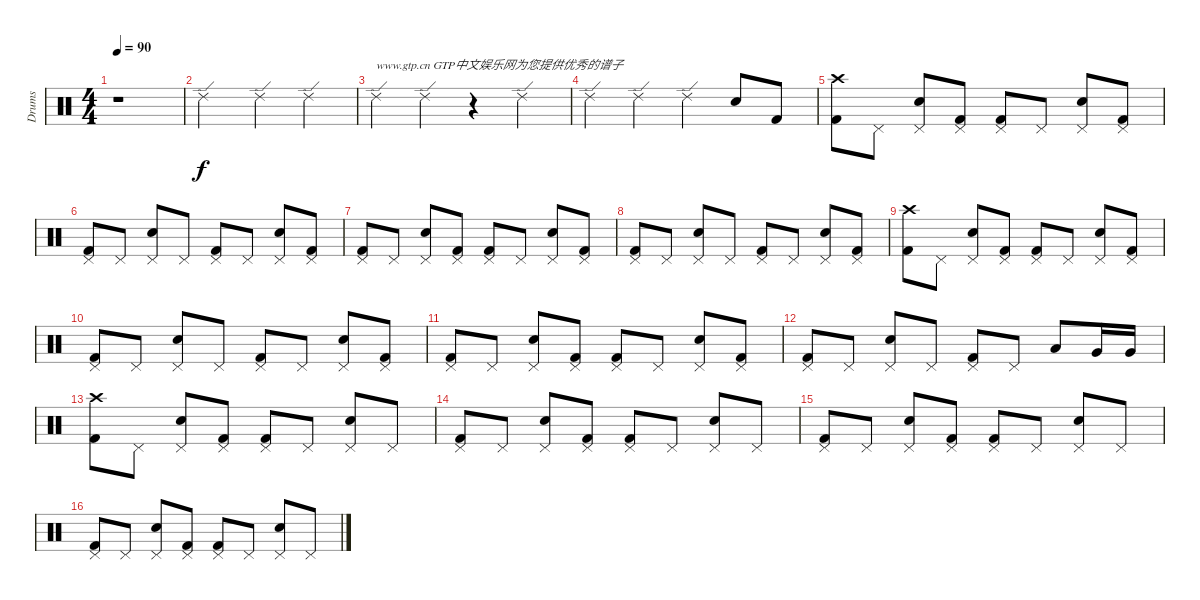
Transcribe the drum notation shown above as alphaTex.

\track ("Drums" "Drums") {instrument percussion}
\staff {score}
\articulation defaults
\ts (4 4)
\tempo 90
\clef neutral
\ks c
r.1{dy f} |
"Ride (edge) 2".2 "Ride (edge) 2".4 "Ride (edge) 2".4 |
"Ride (edge) 2".4{txt "www.gtp.cn GTP中文娱乐网为您提供优秀的谱子"} "Ride (edge) 2".4 r.4 "Ride (edge) 2".4 |
"Ride (edge) 2".4 "Ride (edge) 2".4 "Ride (edge) 2".4 "Electric Snare (hit)".8 "Kick (hit) 2".8 |
("Crash high (hit)" "Kick (hit) 2").8 "Pedal Hi-Hat (hit)".8 ("Pedal Hi-Hat (hit)" "Electric Snare (hit)").8 ("Pedal Hi-Hat (hit)" "Kick (hit) 2").8 ("Pedal Hi-Hat (hit)" "Kick (hit) 2").8 "Pedal Hi-Hat (hit)".8 ("Pedal Hi-Hat (hit)" "Electric Snare (hit)").8 ("Pedal Hi-Hat (hit)" "Kick (hit) 2").8 |
("Pedal Hi-Hat (hit)" "Kick (hit) 2").8 "Pedal Hi-Hat (hit)".8 ("Pedal Hi-Hat (hit)" "Electric Snare (hit)").8 "Pedal Hi-Hat (hit)".8 ("Pedal Hi-Hat (hit)" "Kick (hit) 2").8 "Pedal Hi-Hat (hit)".8 ("Pedal Hi-Hat (hit)" "Electric Snare (hit)").8 ("Pedal Hi-Hat (hit)" "Kick (hit) 2").8 |
("Pedal Hi-Hat (hit)" "Kick (hit) 2").8 "Pedal Hi-Hat (hit)".8 ("Pedal Hi-Hat (hit)" "Electric Snare (hit)").8 ("Pedal Hi-Hat (hit)" "Kick (hit) 2").8 ("Pedal Hi-Hat (hit)" "Kick (hit) 2").8 "Pedal Hi-Hat (hit)".8 ("Pedal Hi-Hat (hit)" "Electric Snare (hit)").8 ("Pedal Hi-Hat (hit)" "Kick (hit) 2").8 |
("Pedal Hi-Hat (hit)" "Kick (hit) 2").8 "Pedal Hi-Hat (hit)".8 ("Pedal Hi-Hat (hit)" "Electric Snare (hit)").8 "Pedal Hi-Hat (hit)".8 ("Pedal Hi-Hat (hit)" "Kick (hit) 2").8 "Pedal Hi-Hat (hit)".8 ("Pedal Hi-Hat (hit)" "Electric Snare (hit)").8 ("Pedal Hi-Hat (hit)" "Kick (hit) 2").8 |
("Crash high (hit)" "Kick (hit) 2").8 "Pedal Hi-Hat (hit)".8 ("Pedal Hi-Hat (hit)" "Electric Snare (hit)").8 ("Pedal Hi-Hat (hit)" "Kick (hit) 2").8 ("Pedal Hi-Hat (hit)" "Kick (hit) 2").8 "Pedal Hi-Hat (hit)".8 ("Pedal Hi-Hat (hit)" "Electric Snare (hit)").8 ("Pedal Hi-Hat (hit)" "Kick (hit) 2").8 |
("Pedal Hi-Hat (hit)" "Kick (hit) 2").8 "Pedal Hi-Hat (hit)".8 ("Pedal Hi-Hat (hit)" "Electric Snare (hit)").8 "Pedal Hi-Hat (hit)".8 ("Pedal Hi-Hat (hit)" "Kick (hit) 2").8 "Pedal Hi-Hat (hit)".8 ("Pedal Hi-Hat (hit)" "Electric Snare (hit)").8 ("Pedal Hi-Hat (hit)" "Kick (hit) 2").8 |
("Pedal Hi-Hat (hit)" "Kick (hit) 2").8 "Pedal Hi-Hat (hit)".8 ("Pedal Hi-Hat (hit)" "Electric Snare (hit)").8 ("Pedal Hi-Hat (hit)" "Kick (hit) 2").8 ("Pedal Hi-Hat (hit)" "Kick (hit) 2").8 "Pedal Hi-Hat (hit)".8 ("Pedal Hi-Hat (hit)" "Electric Snare (hit)").8 ("Pedal Hi-Hat (hit)" "Kick (hit) 2").8 |
("Pedal Hi-Hat (hit)" "Kick (hit) 2").8 "Pedal Hi-Hat (hit)".8 ("Pedal Hi-Hat (hit)" "Electric Snare (hit)").8 "Pedal Hi-Hat (hit)".8 ("Pedal Hi-Hat (hit)" "Kick (hit) 2").8 "Pedal Hi-Hat (hit)".8 "Low Tom (hit)".8 "Very Low Tom (hit)".16 "Very Low Tom (hit)".16 |
("Crash high (hit)" "Kick (hit) 2").8 "Pedal Hi-Hat (hit)".8 ("Pedal Hi-Hat (hit)" "Electric Snare (hit)").8 ("Pedal Hi-Hat (hit)" "Kick (hit) 2").8 ("Pedal Hi-Hat (hit)" "Kick (hit) 2").8 "Pedal Hi-Hat (hit)".8 ("Pedal Hi-Hat (hit)" "Electric Snare (hit)").8 "Pedal Hi-Hat (hit)".8 |
("Pedal Hi-Hat (hit)" "Kick (hit) 2").8 "Pedal Hi-Hat (hit)".8 ("Pedal Hi-Hat (hit)" "Electric Snare (hit)").8 ("Pedal Hi-Hat (hit)" "Kick (hit) 2").8 ("Pedal Hi-Hat (hit)" "Kick (hit) 2").8 "Pedal Hi-Hat (hit)".8 ("Pedal Hi-Hat (hit)" "Electric Snare (hit)").8 "Pedal Hi-Hat (hit)".8 |
("Pedal Hi-Hat (hit)" "Kick (hit) 2").8 "Pedal Hi-Hat (hit)".8 ("Pedal Hi-Hat (hit)" "Electric Snare (hit)").8 ("Pedal Hi-Hat (hit)" "Kick (hit) 2").8 ("Pedal Hi-Hat (hit)" "Kick (hit) 2").8 "Pedal Hi-Hat (hit)".8 ("Pedal Hi-Hat (hit)" "Electric Snare (hit)").8 "Pedal Hi-Hat (hit)".8 |
("Pedal Hi-Hat (hit)" "Kick (hit) 2").8 "Pedal Hi-Hat (hit)".8 ("Pedal Hi-Hat (hit)" "Electric Snare (hit)").8 ("Pedal Hi-Hat (hit)" "Kick (hit) 2").8 ("Pedal Hi-Hat (hit)" "Kick (hit) 2").8 "Pedal Hi-Hat (hit)".8 ("Pedal Hi-Hat (hit)" "Electric Snare (hit)").8 "Pedal Hi-Hat (hit)".8
